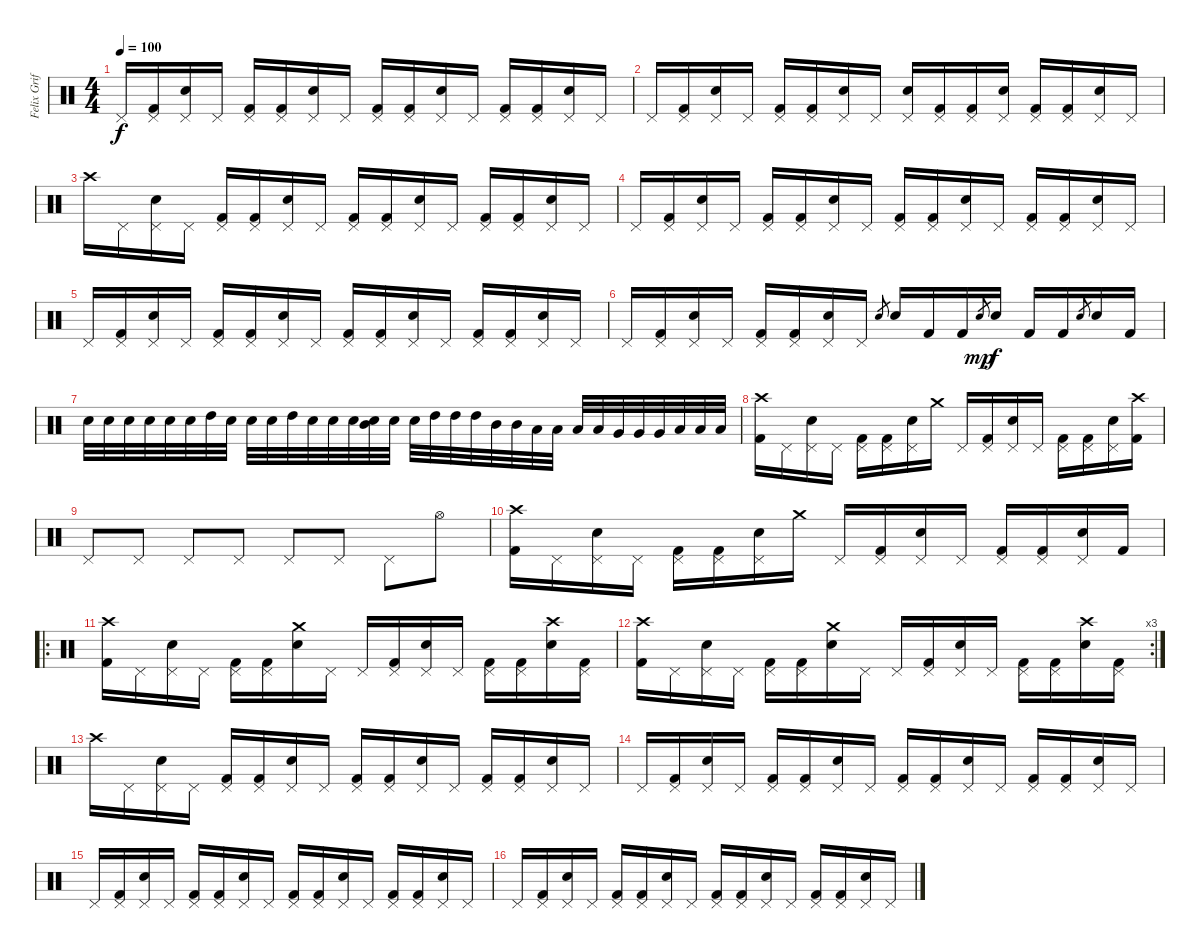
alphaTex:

\track ("Felix Griffen" "Felix Grif") {instrument percussion}
\staff {score}
\articulation defaults
\ts (4 4)
\tempo 100
\clef neutral
\ks c "Pedal Hi-Hat (hit)".16{dy f}
("Pedal Hi-Hat (hit)" "Kick (hit) 2").16 ("Pedal Hi-Hat (hit)" "Electric Snare (hit)").16 "Pedal Hi-Hat (hit)".16 ("Pedal Hi-Hat (hit)" "Kick (hit) 2").16 ("Pedal Hi-Hat (hit)" "Kick (hit) 2").16 ("Pedal Hi-Hat (hit)" "Electric Snare (hit)").16 "Pedal Hi-Hat (hit)".16 ("Pedal Hi-Hat (hit)" "Kick (hit) 2").16 ("Pedal Hi-Hat (hit)" "Kick (hit) 2").16 ("Pedal Hi-Hat (hit)" "Electric Snare (hit)").16 "Pedal Hi-Hat (hit)".16 ("Pedal Hi-Hat (hit)" "Kick (hit) 2").16 ("Pedal Hi-Hat (hit)" "Kick (hit) 2").16 ("Pedal Hi-Hat (hit)" "Electric Snare (hit)").16 "Pedal Hi-Hat (hit)".16 |
"Pedal Hi-Hat (hit)".16 ("Pedal Hi-Hat (hit)" "Kick (hit) 2").16 ("Pedal Hi-Hat (hit)" "Electric Snare (hit)").16 "Pedal Hi-Hat (hit)".16 ("Pedal Hi-Hat (hit)" "Kick (hit) 2").16 ("Pedal Hi-Hat (hit)" "Kick (hit) 2").16 ("Pedal Hi-Hat (hit)" "Electric Snare (hit)").16 "Pedal Hi-Hat (hit)".16 ("Pedal Hi-Hat (hit)" "Electric Snare (hit)").16 ("Pedal Hi-Hat (hit)" "Kick (hit) 2").16 ("Pedal Hi-Hat (hit)" "Kick (hit) 2").16 ("Pedal Hi-Hat (hit)" "Electric Snare (hit)").16 ("Pedal Hi-Hat (hit)" "Kick (hit) 2").16 ("Pedal Hi-Hat (hit)" "Kick (hit) 2").16 ("Pedal Hi-Hat (hit)" "Electric Snare (hit)").16 "Pedal Hi-Hat (hit)".16 |
"Crash high (hit)".16 "Pedal Hi-Hat (hit)".16 ("Pedal Hi-Hat (hit)" "Electric Snare (hit)").16 "Pedal Hi-Hat (hit)".16 ("Pedal Hi-Hat (hit)" "Kick (hit) 2").16 ("Pedal Hi-Hat (hit)" "Kick (hit) 2").16 ("Pedal Hi-Hat (hit)" "Electric Snare (hit)").16 "Pedal Hi-Hat (hit)".16 ("Pedal Hi-Hat (hit)" "Kick (hit) 2").16 ("Pedal Hi-Hat (hit)" "Kick (hit) 2").16 ("Pedal Hi-Hat (hit)" "Electric Snare (hit)").16 "Pedal Hi-Hat (hit)".16 ("Pedal Hi-Hat (hit)" "Kick (hit) 2").16 ("Pedal Hi-Hat (hit)" "Kick (hit) 2").16 ("Pedal Hi-Hat (hit)" "Electric Snare (hit)").16 "Pedal Hi-Hat (hit)".16 |
"Pedal Hi-Hat (hit)".16 ("Pedal Hi-Hat (hit)" "Kick (hit) 2").16 ("Pedal Hi-Hat (hit)" "Electric Snare (hit)").16 "Pedal Hi-Hat (hit)".16 ("Pedal Hi-Hat (hit)" "Kick (hit) 2").16 ("Pedal Hi-Hat (hit)" "Kick (hit) 2").16 ("Pedal Hi-Hat (hit)" "Electric Snare (hit)").16 "Pedal Hi-Hat (hit)".16 ("Pedal Hi-Hat (hit)" "Kick (hit) 2").16 ("Pedal Hi-Hat (hit)" "Kick (hit) 2").16 ("Pedal Hi-Hat (hit)" "Electric Snare (hit)").16 "Pedal Hi-Hat (hit)".16 ("Pedal Hi-Hat (hit)" "Kick (hit) 2").16 ("Pedal Hi-Hat (hit)" "Kick (hit) 2").16 ("Pedal Hi-Hat (hit)" "Electric Snare (hit)").16 "Pedal Hi-Hat (hit)".16 |
"Pedal Hi-Hat (hit)".16 ("Pedal Hi-Hat (hit)" "Kick (hit) 2").16 ("Pedal Hi-Hat (hit)" "Electric Snare (hit)").16 "Pedal Hi-Hat (hit)".16 ("Pedal Hi-Hat (hit)" "Kick (hit) 2").16 ("Pedal Hi-Hat (hit)" "Kick (hit) 2").16 ("Pedal Hi-Hat (hit)" "Electric Snare (hit)").16 "Pedal Hi-Hat (hit)".16 ("Pedal Hi-Hat (hit)" "Kick (hit) 2").16 ("Pedal Hi-Hat (hit)" "Kick (hit) 2").16 ("Pedal Hi-Hat (hit)" "Electric Snare (hit)").16 "Pedal Hi-Hat (hit)".16 ("Pedal Hi-Hat (hit)" "Kick (hit) 2").16 ("Pedal Hi-Hat (hit)" "Kick (hit) 2").16 ("Pedal Hi-Hat (hit)" "Electric Snare (hit)").16 "Pedal Hi-Hat (hit)".16 |
"Pedal Hi-Hat (hit)".16 ("Pedal Hi-Hat (hit)" "Kick (hit) 2").16 ("Pedal Hi-Hat (hit)" "Electric Snare (hit)").16 "Pedal Hi-Hat (hit)".16 ("Pedal Hi-Hat (hit)" "Kick (hit) 2").16 ("Pedal Hi-Hat (hit)" "Kick (hit) 2").16 ("Pedal Hi-Hat (hit)" "Electric Snare (hit)").16 "Pedal Hi-Hat (hit)".16 "Electric Snare (hit)".8{gr} "Electric Snare (hit)".16 "Kick (hit) 2".16 "Kick (hit) 2".16 "Electric Snare (hit)".8{gr dy mp} "Electric Snare (hit)".16{dy f} "Kick (hit) 2".16 "Kick (hit) 2".16 "Electric Snare (hit)".8{gr} "Electric Snare (hit)".16 "Kick (hit) 2".16 |
"Electric Snare (hit)".32 "Electric Snare (hit)".32 "Electric Snare (hit)".32 "Electric Snare (hit)".32 "Electric Snare (hit)".32 "Electric Snare (hit)".32 "High Tom (hit)".32 "Electric Snare (hit)".32 "Electric Snare (hit)".32 "Electric Snare (hit)".32 "High Tom (hit)".32 "Electric Snare (hit)".32 "Electric Snare (hit)".32 "Electric Snare (hit)".32 ("Mid Tom (hit)" "Electric Snare (hit)").32 "Electric Snare (hit)".32 "Electric Snare (hit)".32 "High Tom (hit)".32 "High Tom (hit)".32 "High Tom (hit)".32 "Mid Tom (hit)".32 "Mid Tom (hit)".32 "Low Tom (hit)".32 "Low Tom (hit)".32 "Low Tom (hit)".32 "Low Tom (hit)".32 "Very Low Tom (hit)".32 "Very Low Tom (hit)".32 "Very Low Tom (hit)".32 "Low Floor Tom (hit)".32 "Low Floor Tom (hit)".32 "Low Floor Tom (hit)".32 |
("Crash high (hit)" "Kick (hit) 2").16 "Pedal Hi-Hat (hit)".16 ("Pedal Hi-Hat (hit)" "Electric Snare (hit)").16 "Pedal Hi-Hat (hit)".16 ("Pedal Hi-Hat (hit)" "Kick (hit) 2").16 ("Pedal Hi-Hat (hit)" "Kick (hit) 2").16 ("Pedal Hi-Hat (hit)" "Electric Snare (hit)").16 "Crash medium (hit)".16 "Pedal Hi-Hat (hit)".16 ("Pedal Hi-Hat (hit)" "Kick (hit) 2").16 ("Pedal Hi-Hat (hit)" "Electric Snare (hit)").16 "Pedal Hi-Hat (hit)".16 ("Pedal Hi-Hat (hit)" "Kick (hit) 2").16 ("Pedal Hi-Hat (hit)" "Kick (hit) 2").16 ("Pedal Hi-Hat (hit)" "Electric Snare (hit)").16 ("Crash high (hit)" "Kick (hit) 2").16 |
"Pedal Hi-Hat (hit)".8 "Pedal Hi-Hat (hit)".8 "Pedal Hi-Hat (hit)".8 "Pedal Hi-Hat (hit)".8 "Pedal Hi-Hat (hit)".8 "Pedal Hi-Hat (hit)".8 "Pedal Hi-Hat (hit)".8 "Hi-Hat (open)".8 |
("Crash high (hit)" "Kick (hit) 2").16 "Pedal Hi-Hat (hit)".16 ("Pedal Hi-Hat (hit)" "Electric Snare (hit)").16 "Pedal Hi-Hat (hit)".16 ("Pedal Hi-Hat (hit)" "Kick (hit) 2").16 ("Pedal Hi-Hat (hit)" "Kick (hit) 2").16 ("Pedal Hi-Hat (hit)" "Electric Snare (hit)").16 "Crash medium (hit)".16 "Pedal Hi-Hat (hit)".16 ("Pedal Hi-Hat (hit)" "Kick (hit) 2").16 ("Pedal Hi-Hat (hit)" "Electric Snare (hit)").16 "Pedal Hi-Hat (hit)".16 ("Pedal Hi-Hat (hit)" "Kick (hit) 2").16 ("Pedal Hi-Hat (hit)" "Kick (hit) 2").16 ("Pedal Hi-Hat (hit)" "Electric Snare (hit)").16 "Kick (hit) 2".16 |
\ro
("Crash high (hit)" "Kick (hit) 2").16 "Pedal Hi-Hat (hit)".16 ("Pedal Hi-Hat (hit)" "Electric Snare (hit)").16 "Pedal Hi-Hat (hit)".16 ("Pedal Hi-Hat (hit)" "Kick (hit) 2").16 ("Pedal Hi-Hat (hit)" "Kick (hit) 2").16 ("Crash medium (hit)" "Electric Snare (hit)").16 "Pedal Hi-Hat (hit)".16 "Pedal Hi-Hat (hit)".16 ("Pedal Hi-Hat (hit)" "Kick (hit) 2").16 ("Pedal Hi-Hat (hit)" "Electric Snare (hit)").16 "Pedal Hi-Hat (hit)".16 ("Pedal Hi-Hat (hit)" "Kick (hit) 2").16 ("Pedal Hi-Hat (hit)" "Kick (hit) 2").16 ("Crash high (hit)" "Electric Snare (hit)").16 ("Pedal Hi-Hat (hit)" "Kick (hit) 2").16 |
\rc 3
("Crash high (hit)" "Kick (hit) 2").16 "Pedal Hi-Hat (hit)".16 ("Pedal Hi-Hat (hit)" "Electric Snare (hit)").16 "Pedal Hi-Hat (hit)".16 ("Pedal Hi-Hat (hit)" "Kick (hit) 2").16 ("Pedal Hi-Hat (hit)" "Kick (hit) 2").16 ("Crash medium (hit)" "Electric Snare (hit)").16 "Pedal Hi-Hat (hit)".16 "Pedal Hi-Hat (hit)".16 ("Pedal Hi-Hat (hit)" "Kick (hit) 2").16 ("Pedal Hi-Hat (hit)" "Electric Snare (hit)").16 "Pedal Hi-Hat (hit)".16 ("Pedal Hi-Hat (hit)" "Kick (hit) 2").16 ("Pedal Hi-Hat (hit)" "Kick (hit) 2").16 ("Crash high (hit)" "Electric Snare (hit)").16 ("Pedal Hi-Hat (hit)" "Kick (hit) 2").16 |
"Crash high (hit)".16 "Pedal Hi-Hat (hit)".16 ("Pedal Hi-Hat (hit)" "Electric Snare (hit)").16 "Pedal Hi-Hat (hit)".16 ("Pedal Hi-Hat (hit)" "Kick (hit) 2").16 ("Pedal Hi-Hat (hit)" "Kick (hit) 2").16 ("Pedal Hi-Hat (hit)" "Electric Snare (hit)").16 "Pedal Hi-Hat (hit)".16 ("Pedal Hi-Hat (hit)" "Kick (hit) 2").16 ("Pedal Hi-Hat (hit)" "Kick (hit) 2").16 ("Pedal Hi-Hat (hit)" "Electric Snare (hit)").16 "Pedal Hi-Hat (hit)".16 ("Pedal Hi-Hat (hit)" "Kick (hit) 2").16 ("Pedal Hi-Hat (hit)" "Kick (hit) 2").16 ("Pedal Hi-Hat (hit)" "Electric Snare (hit)").16 "Pedal Hi-Hat (hit)".16 |
"Pedal Hi-Hat (hit)".16 ("Pedal Hi-Hat (hit)" "Kick (hit) 2").16 ("Pedal Hi-Hat (hit)" "Electric Snare (hit)").16 "Pedal Hi-Hat (hit)".16 ("Pedal Hi-Hat (hit)" "Kick (hit) 2").16 ("Pedal Hi-Hat (hit)" "Kick (hit) 2").16 ("Pedal Hi-Hat (hit)" "Electric Snare (hit)").16 "Pedal Hi-Hat (hit)".16 ("Pedal Hi-Hat (hit)" "Kick (hit) 2").16 ("Pedal Hi-Hat (hit)" "Kick (hit) 2").16 ("Pedal Hi-Hat (hit)" "Electric Snare (hit)").16 "Pedal Hi-Hat (hit)".16 ("Pedal Hi-Hat (hit)" "Kick (hit) 2").16 ("Pedal Hi-Hat (hit)" "Kick (hit) 2").16 ("Pedal Hi-Hat (hit)" "Electric Snare (hit)").16 "Pedal Hi-Hat (hit)".16 |
"Pedal Hi-Hat (hit)".16 ("Pedal Hi-Hat (hit)" "Kick (hit) 2").16 ("Pedal Hi-Hat (hit)" "Electric Snare (hit)").16 "Pedal Hi-Hat (hit)".16 ("Pedal Hi-Hat (hit)" "Kick (hit) 2").16 ("Pedal Hi-Hat (hit)" "Kick (hit) 2").16 ("Pedal Hi-Hat (hit)" "Electric Snare (hit)").16 "Pedal Hi-Hat (hit)".16 ("Pedal Hi-Hat (hit)" "Kick (hit) 2").16 ("Pedal Hi-Hat (hit)" "Kick (hit) 2").16 ("Pedal Hi-Hat (hit)" "Electric Snare (hit)").16 "Pedal Hi-Hat (hit)".16 ("Pedal Hi-Hat (hit)" "Kick (hit) 2").16 ("Pedal Hi-Hat (hit)" "Kick (hit) 2").16 ("Pedal Hi-Hat (hit)" "Electric Snare (hit)").16 "Pedal Hi-Hat (hit)".16 |
"Pedal Hi-Hat (hit)".16 ("Pedal Hi-Hat (hit)" "Kick (hit) 2").16 ("Pedal Hi-Hat (hit)" "Electric Snare (hit)").16 "Pedal Hi-Hat (hit)".16 ("Pedal Hi-Hat (hit)" "Kick (hit) 2").16 ("Pedal Hi-Hat (hit)" "Kick (hit) 2").16 ("Pedal Hi-Hat (hit)" "Electric Snare (hit)").16 "Pedal Hi-Hat (hit)".16 ("Pedal Hi-Hat (hit)" "Kick (hit) 2").16 ("Pedal Hi-Hat (hit)" "Kick (hit) 2").16 ("Pedal Hi-Hat (hit)" "Electric Snare (hit)").16 "Pedal Hi-Hat (hit)".16 ("Pedal Hi-Hat (hit)" "Kick (hit) 2").16 ("Pedal Hi-Hat (hit)" "Kick (hit) 2").16 ("Pedal Hi-Hat (hit)" "Electric Snare (hit)").16 "Pedal Hi-Hat (hit)".16
